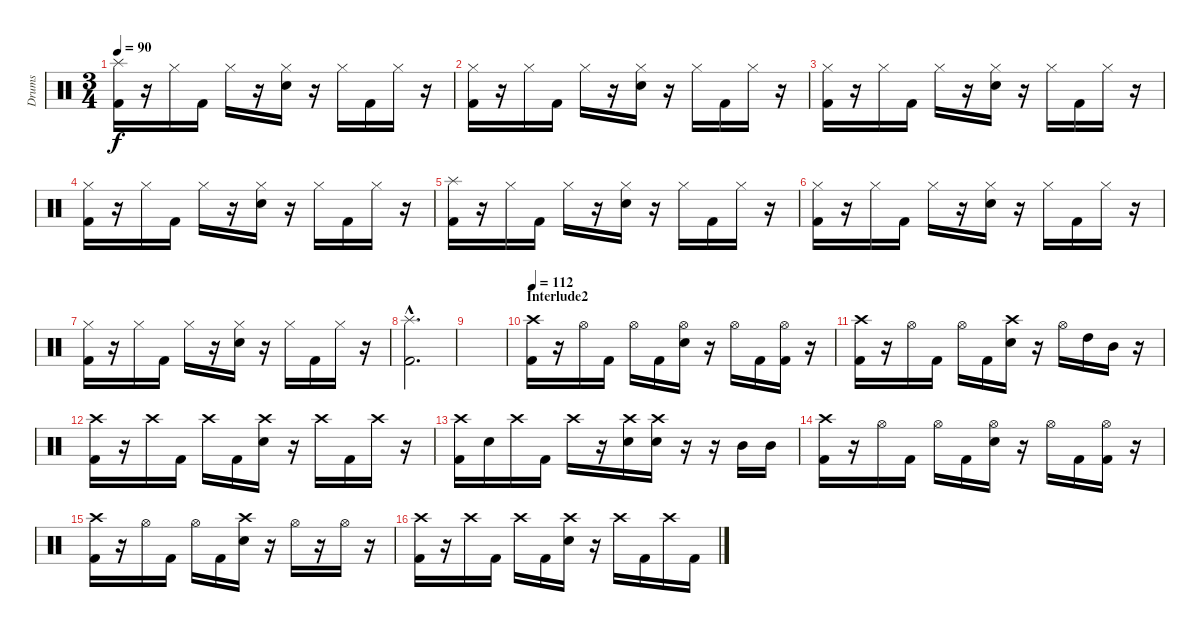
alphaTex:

\track ("Drums" "Drums") {instrument percussion}
\staff {score}
\articulation defaults
\ts (3 4)
\tempo 90
\clef neutral
\ks c
("Splash (hit)" "Kick (hit) 2").16{dy f} r.16 "Hi-Hat (closed)".16 "Kick (hit) 2".16 "Hi-Hat (closed)".16 r.16 ("Hi-Hat (closed)" "Snare (hit) 2").16 r.16 "Hi-Hat (closed)".16 "Kick (hit) 2".16 "Hi-Hat (closed)".16 r.16 |
("Hi-Hat (closed)" "Kick (hit) 2").16 r.16 "Hi-Hat (closed)".16 "Kick (hit) 2".16 "Hi-Hat (closed)".16 r.16 ("Hi-Hat (closed)" "Snare (hit) 2").16 r.16 "Hi-Hat (closed)".16 "Kick (hit) 2".16 "Hi-Hat (closed)".16 r.16 |
("Hi-Hat (closed)" "Kick (hit) 2").16 r.16 "Hi-Hat (closed)".16 "Kick (hit) 2".16 "Hi-Hat (closed)".16 r.16 ("Hi-Hat (closed)" "Snare (hit) 2").16 r.16 "Hi-Hat (closed)".16 "Kick (hit) 2".16 "Hi-Hat (closed)".16 r.16 |
("Hi-Hat (closed)" "Kick (hit) 2").16 r.16 "Hi-Hat (closed)".16 "Kick (hit) 2".16 "Hi-Hat (closed)".16 r.16 ("Hi-Hat (closed)" "Snare (hit) 2").16 r.16 "Hi-Hat (closed)".16 "Kick (hit) 2".16 "Hi-Hat (closed)".16 r.16 |
("Splash (hit)" "Kick (hit) 2").16 r.16 "Hi-Hat (closed)".16 "Kick (hit) 2".16 "Hi-Hat (closed)".16 r.16 ("Hi-Hat (closed)" "Snare (hit) 2").16 r.16 "Hi-Hat (closed)".16 "Kick (hit) 2".16 "Hi-Hat (closed)".16 r.16 |
("Hi-Hat (closed)" "Kick (hit) 2").16 r.16 "Hi-Hat (closed)".16 "Kick (hit) 2".16 "Hi-Hat (closed)".16 r.16 ("Hi-Hat (closed)" "Snare (hit) 2").16 r.16 "Hi-Hat (closed)".16 "Kick (hit) 2".16 "Hi-Hat (closed)".16 r.16 |
("Hi-Hat (closed)" "Kick (hit) 2").16 r.16 "Hi-Hat (closed)".16 "Kick (hit) 2".16 "Hi-Hat (closed)".16 r.16 ("Hi-Hat (closed)" "Snare (hit) 2").16 r.16 "Hi-Hat (closed)".16 "Kick (hit) 2".16 "Hi-Hat (closed)".16 r.16 |
("Splash (hit)"{hac} "Kick (hit) 2"{hac}).2{d} |
|
\section ("" "Interlude2")
\tempo 112
("Crash high (hit)" "Kick (hit) 2").16 r.16 "Hi-Hat (open)".16 "Kick (hit) 2".16 "Hi-Hat (open)".16 "Kick (hit) 2".16 ("Hi-Hat (open)" "Electric Snare (hit)").16 r.16 "Hi-Hat (open)".16 "Kick (hit) 2".16 ("Hi-Hat (open)" "Kick (hit) 2").16 r.16 |
("Crash high (hit)" "Kick (hit) 2").16 r.16 "Hi-Hat (open)".16 "Kick (hit) 2".16 "Hi-Hat (open)".16 "Kick (hit) 2".16 ("Crash high (hit)" "Electric Snare (hit)").16 r.16 "Hi-Hat (open)".16 "High Tom (hit)".16 "Mid Tom (hit)".16 r.16 |
("Crash high (hit)" "Kick (hit) 2").16 r.16 "Crash high (hit)".16 "Kick (hit) 2".16 "Crash high (hit)".16 "Kick (hit) 2".16 ("Crash high (hit)" "Electric Snare (hit)").16 r.16 "Crash high (hit)".16 "Kick (hit) 2".16 "Crash high (hit)".16 r.16 |
("Crash high (hit)" "Kick (hit) 2").16 "Electric Snare (hit)".16 "Crash high (hit)".16 "Kick (hit) 2".16 "Crash high (hit)".16 r.16 ("Crash high (hit)" "Electric Snare (hit)").16 ("Crash high (hit)" "Electric Snare (hit)").16 r.16 r.16 "Mid Tom (hit)".16 "Mid Tom (hit)".16 |
("Crash high (hit)" "Kick (hit) 2").16 r.16 "Hi-Hat (open)".16 "Kick (hit) 2".16 "Hi-Hat (open)".16 "Kick (hit) 2".16 ("Hi-Hat (open)" "Electric Snare (hit)").16 r.16 "Hi-Hat (open)".16 "Kick (hit) 2".16 ("Hi-Hat (open)" "Kick (hit) 2").16 r.16 |
("Crash high (hit)" "Kick (hit) 2").16 r.16 "Hi-Hat (open)".16 "Kick (hit) 2".16 "Hi-Hat (open)".16 "Kick (hit) 2".16 ("Crash high (hit)" "Electric Snare (hit)").16 r.16 "Hi-Hat (open)".16 r.16 "Hi-Hat (open)".16 r.16 |
("Crash high (hit)" "Kick (hit) 2").16 r.16 "Crash high (hit)".16 "Kick (hit) 2".16 "Crash high (hit)".16 "Kick (hit) 2".16 ("Crash high (hit)" "Electric Snare (hit)").16 r.16 "Crash high (hit)".16 "Kick (hit) 2".16 "Crash high (hit)".16 "Kick (hit) 2".16
